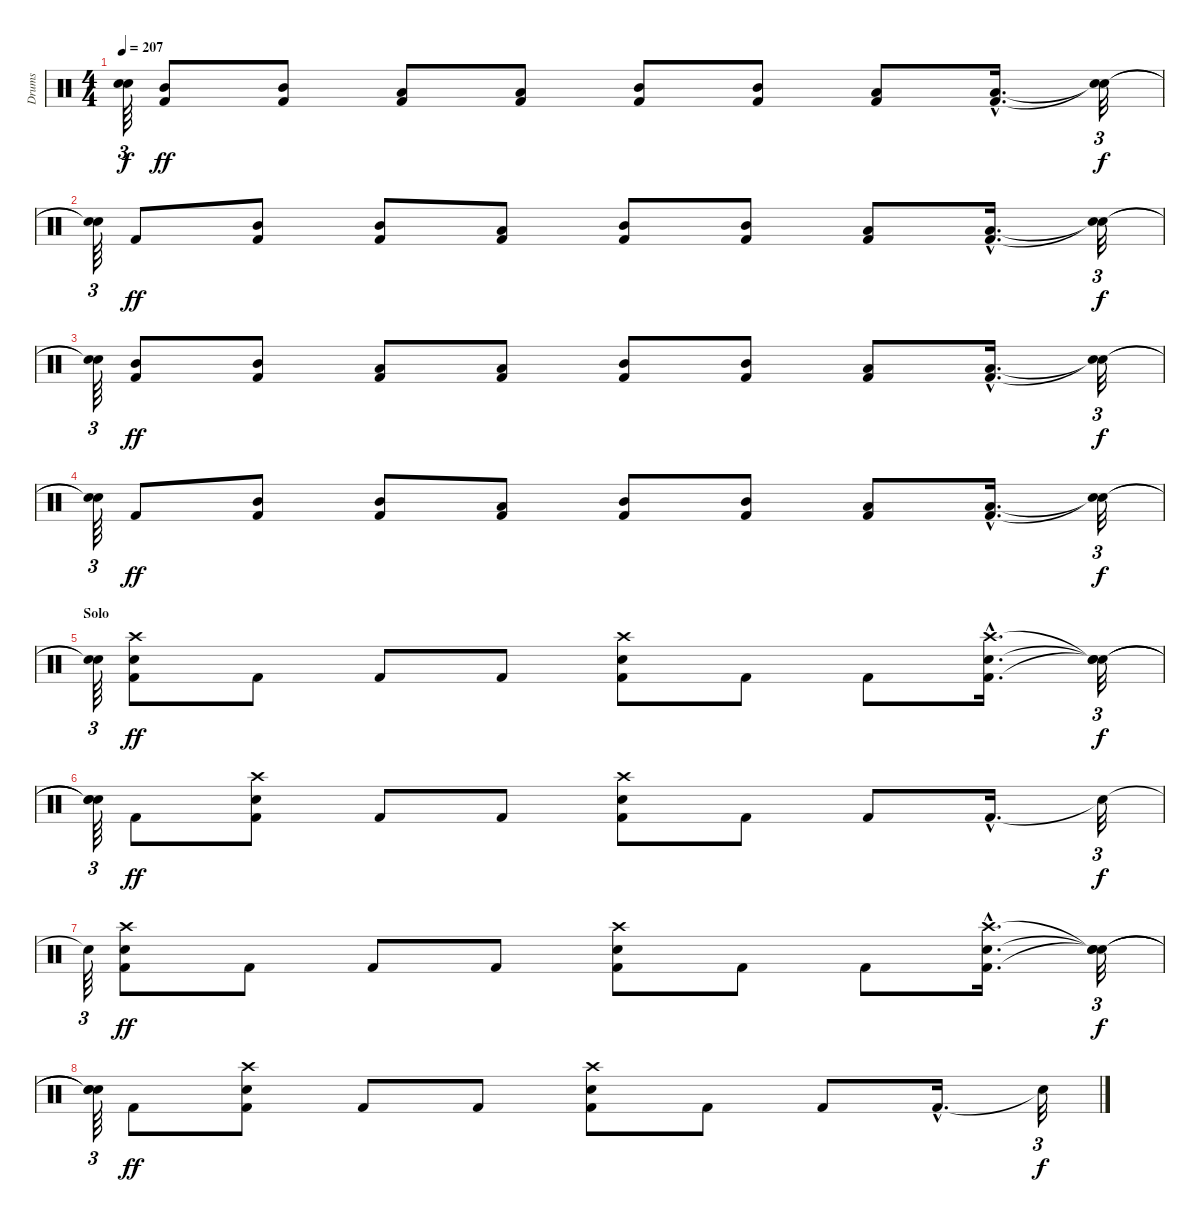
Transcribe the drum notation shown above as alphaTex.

\track ("Drums" "Drums") {instrument percussion}
\staff {score}
\articulation defaults
\ts (4 4)
\tempo 207
\clef neutral
\ks c
("Snare (hit)"{t} "Snare (hit)"{t}).64{tu (3 2) dy f} ("Mid Tom (hit)" "Kick (hit) 2").8{dy ff} ("Mid Tom (hit)" "Kick (hit) 2").8 ("Low Floor Tom (hit)" "Kick (hit) 2").8 ("Low Floor Tom (hit)" "Kick (hit) 2").8 ("Mid Tom (hit)" "Kick (hit) 2").8 ("Mid Tom (hit)" "Kick (hit) 2").8 ("Low Floor Tom (hit)" "Kick (hit) 2").8 ("Low Floor Tom (hit)"{hac} "Kick (hit) 2"{hac}).16{d} ("Snare (hit)"{t} "Snare (hit)"{t}).32{tu (3 2) dy f} |
("Snare (hit)"{t} "Snare (hit)"{t}).64{tu (3 2)} "Kick (hit) 2".8{dy ff} ("Mid Tom (hit)" "Kick (hit) 2").8 ("Mid Tom (hit)" "Kick (hit) 2").8 ("Low Floor Tom (hit)" "Kick (hit) 2").8 ("Mid Tom (hit)" "Kick (hit) 2").8 ("Mid Tom (hit)" "Kick (hit) 2").8 ("Low Floor Tom (hit)" "Kick (hit) 2").8 ("Low Floor Tom (hit)"{hac} "Kick (hit) 2"{hac}).16{d} ("Snare (hit)"{t} "Snare (hit)"{t}).32{tu (3 2) dy f} |
("Snare (hit)"{t} "Snare (hit)"{t}).64{tu (3 2)} ("Mid Tom (hit)" "Kick (hit) 2").8{dy ff} ("Mid Tom (hit)" "Kick (hit) 2").8 ("Low Floor Tom (hit)" "Kick (hit) 2").8 ("Low Floor Tom (hit)" "Kick (hit) 2").8 ("Mid Tom (hit)" "Kick (hit) 2").8 ("Mid Tom (hit)" "Kick (hit) 2").8 ("Low Floor Tom (hit)" "Kick (hit) 2").8 ("Low Floor Tom (hit)"{hac} "Kick (hit) 2"{hac}).16{d} ("Snare (hit)"{t} "Snare (hit)"{t}).32{tu (3 2) dy f} |
("Snare (hit)"{t} "Snare (hit)"{t}).64{tu (3 2)} "Kick (hit) 2".8{dy ff} ("Mid Tom (hit)" "Kick (hit) 2").8 ("Mid Tom (hit)" "Kick (hit) 2").8 ("Low Floor Tom (hit)" "Kick (hit) 2").8 ("Mid Tom (hit)" "Kick (hit) 2").8 ("Mid Tom (hit)" "Kick (hit) 2").8 ("Low Floor Tom (hit)" "Kick (hit) 2").8 ("Low Floor Tom (hit)"{hac} "Kick (hit) 2"{hac}).16{d} ("Snare (hit)"{t} "Snare (hit)"{t}).32{tu (3 2) dy f} |
\section ("" "Solo")
("Snare (hit)"{t} "Snare (hit)"{t}).64{tu (3 2)} ("Crash high (hit)" "Snare (hit) 2" "Kick (hit) 2").8{dy ff} "Kick (hit) 2".8 "Kick (hit) 2".8 "Kick (hit) 2".8 ("Crash high (hit)" "Snare (hit) 2" "Kick (hit) 2").8 "Kick (hit) 2".8 "Kick (hit) 2".8 ("Crash high (hit)"{hac} "Snare (hit) 2"{hac} "Kick (hit) 2"{hac}).16{d} ("Snare (hit)"{t} "Snare (hit)"{t} "Snare (hit)"{t}).32{tu (3 2) dy f} |
("Snare (hit)"{t} "Snare (hit)"{t} "Snare (hit)"{t}).64{tu (3 2)} "Kick (hit) 2".8{dy ff} ("Crash high (hit)" "Snare (hit) 2" "Kick (hit) 2").8 "Kick (hit) 2".8 "Kick (hit) 2".8 ("Crash high (hit)" "Snare (hit) 2" "Kick (hit) 2").8 "Kick (hit) 2".8 "Kick (hit) 2".8 "Kick (hit) 2"{hac}.16{d} "Snare (hit)"{t}.32{tu (3 2) dy f} |
"Snare (hit)"{t}.64{tu (3 2)} ("Crash high (hit)" "Snare (hit) 2" "Kick (hit) 2").8{dy ff} "Kick (hit) 2".8 "Kick (hit) 2".8 "Kick (hit) 2".8 ("Crash high (hit)" "Snare (hit) 2" "Kick (hit) 2").8 "Kick (hit) 2".8 "Kick (hit) 2".8 ("Crash high (hit)"{hac} "Snare (hit) 2"{hac} "Kick (hit) 2"{hac}).16{d} ("Snare (hit)"{t} "Snare (hit)"{t} "Snare (hit)"{t}).32{tu (3 2) dy f} |
("Snare (hit)"{t} "Snare (hit)"{t} "Snare (hit)"{t}).64{tu (3 2)} "Kick (hit) 2".8{dy ff} ("Crash high (hit)" "Snare (hit) 2" "Kick (hit) 2").8 "Kick (hit) 2".8 "Kick (hit) 2".8 ("Crash high (hit)" "Snare (hit) 2" "Kick (hit) 2").8 "Kick (hit) 2".8 "Kick (hit) 2".8 "Kick (hit) 2"{hac}.16{d} "Snare (hit)"{t}.32{tu (3 2) dy f}
